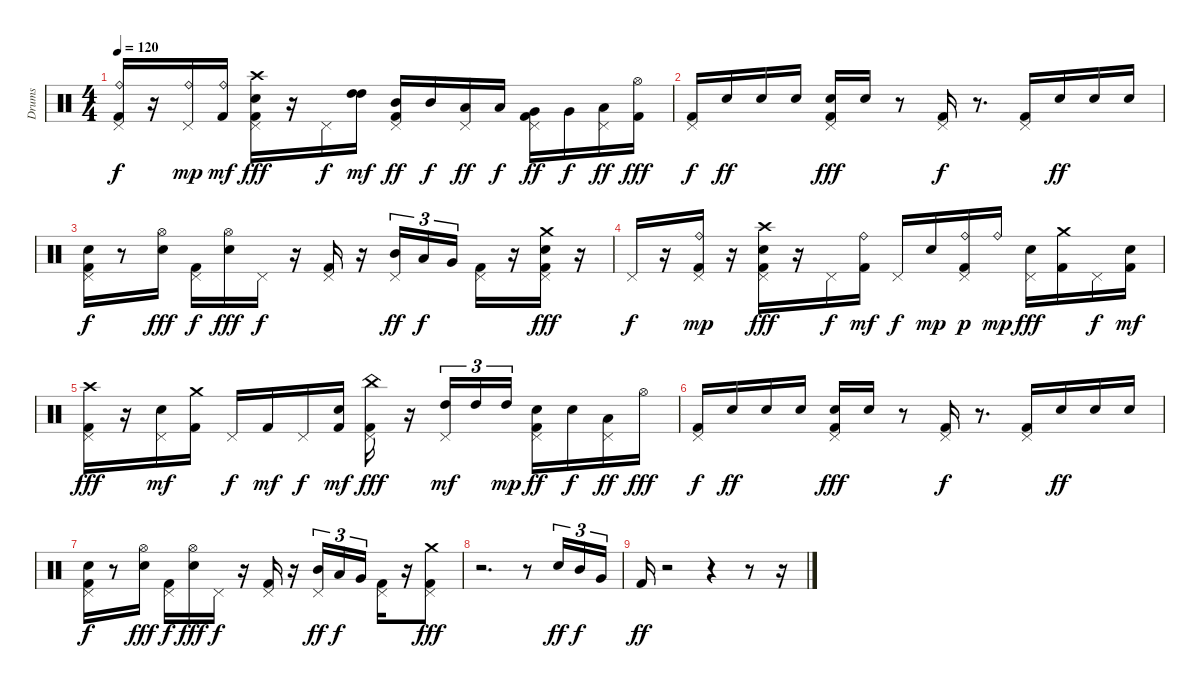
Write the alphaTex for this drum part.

\track ("Drums" "Drums") {instrument percussion}
\staff {score}
\articulation defaults
\ts (4 4)
\tempo 120
\clef neutral
\ks c
("Ride (bell)" "Kick (hit) 2" "Pedal Hi-Hat (hit)").16{dy f} r.16 ("Ride (bell)" "Pedal Hi-Hat (hit)").16{dy mp} ("Ride (bell)" "Kick (hit) 2").16{dy mf} ("Snare (hit) 2" "Crash high (hit)" "Kick (hit) 2" "Pedal Hi-Hat (hit)").16{dy fff} r.16 "Pedal Hi-Hat (hit)".16{dy f} ("High Tom (hit)" "High Tom (hit)").16{dy mf} ("Kick (hit) 2" "Mid Tom (hit)" "Pedal Hi-Hat (hit)").16{dy ff} "Mid Tom (hit)".16{dy f} ("Low Tom (hit)" "Pedal Hi-Hat (hit)").16{dy ff} "Low Tom (hit)".16{dy f} ("Kick (hit) 2" "Very Low Tom (hit)" "Pedal Hi-Hat (hit)").16{dy ff} "Very Low Tom (hit)".16{dy f} ("Low Floor Tom (hit)" "Pedal Hi-Hat (hit)").16{dy ff} ("Kick (hit) 2" "Hi-Hat (open)").16{dy fff} |
("Kick (hit) 2" "Pedal Hi-Hat (hit)").16{dy f} "Snare (hit) 2".16{dy ff} "Snare (hit) 2".16 "Snare (hit) 2".16 ("Snare (hit) 2" "Kick (hit) 2" "Pedal Hi-Hat (hit)").16{dy fff} "Snare (hit) 2".16 r.8 ("Kick (hit) 2" "Pedal Hi-Hat (hit)").16{dy f} r.8{d} ("Kick (hit) 2" "Pedal Hi-Hat (hit)").16 "Snare (hit) 2".16{dy ff} "Snare (hit) 2".16 "Snare (hit) 2".16 |
("Kick (hit) 2" "Snare (hit) 2" "Pedal Hi-Hat (hit)").16{dy f} r.8 ("Snare (hit) 2" "Hi-Hat (open)").16{dy fff} ("Kick (hit) 2" "Pedal Hi-Hat (hit)").16{dy f} ("Snare (hit) 2" "Hi-Hat (open)").16{dy fff} "Pedal Hi-Hat (hit)".16{dy f} r.16 ("Kick (hit) 2" "Pedal Hi-Hat (hit)").16 r.16 ("Mid Tom (hit)" "Pedal Hi-Hat (hit)").16{tu (3 2) dy ff} "Low Tom (hit)".16{tu (3 2) dy f} "Very Low Tom (hit)".16{tu (3 2)} ("Kick (hit) 2" "Pedal Hi-Hat (hit)").16 r.16 ("Kick (hit) 2" "Snare (hit) 2" "Crash medium (hit)" "Pedal Hi-Hat (hit)").16{dy fff} r.16 |
"Pedal Hi-Hat (hit)".16{dy f} r.16 ("Ride (bell)" "Kick (hit) 2" "Pedal Hi-Hat (hit)").16{dy mp} r.16 ("Crash high (hit)" "Snare (hit) 2" "Kick (hit) 2" "Pedal Hi-Hat (hit)").16{dy fff} r.16 "Pedal Hi-Hat (hit)".16{dy f} ("Ride (bell)" "Kick (hit) 2").16{dy mf} "Pedal Hi-Hat (hit)".16{dy f} "Snare (hit) 2".16{dy mp} ("Ride (bell)" "Kick (hit) 2" "Pedal Hi-Hat (hit)").16{dy p} "Ride (bell)".16{dy mp} ("Snare (hit) 2" "Pedal Hi-Hat (hit)").16{dy fff} ("Crash medium (hit)" "Kick (hit) 2").16 "Pedal Hi-Hat (hit)".16{dy f} ("Snare (hit) 2" "Kick (hit) 2").16{dy mf} |
("Crash high (hit)" "Kick (hit) 2" "Pedal Hi-Hat (hit)").16{dy fff} r.16 ("Snare (hit) 2" "Pedal Hi-Hat (hit)").16{dy mf} ("Crash medium (hit)" "Kick (hit) 2").16 "Pedal Hi-Hat (hit)".16{dy f} "Kick (hit) 2".16{dy mf} "Pedal Hi-Hat (hit)".16{dy f} ("Snare (hit) 2" "Kick (hit) 2").16{dy mf} ("China (hit)" "Kick (hit) 2" "Pedal Hi-Hat (hit)").16{dy fff} r.16 ("Pedal Hi-Hat (hit)" "High Tom (hit)").16{tu (3 2) dy mf} "High Tom (hit)".16{tu (3 2)} "High Tom (hit)".16{tu (3 2) dy mp} ("Snare (hit) 2" "Kick (hit) 2" "Pedal Hi-Hat (hit)").16{dy ff} "Snare (hit) 2".16{dy f} ("Low Tom (hit)" "Pedal Hi-Hat (hit)").16{dy ff} "Hi-Hat (open)".16{dy fff} |
("Kick (hit) 2" "Pedal Hi-Hat (hit)").16{dy f} "Snare (hit) 2".16{dy ff} "Snare (hit) 2".16 "Snare (hit) 2".16 ("Snare (hit) 2" "Kick (hit) 2" "Pedal Hi-Hat (hit)").16{dy fff} "Snare (hit) 2".16 r.8 ("Kick (hit) 2" "Pedal Hi-Hat (hit)").16{dy f} r.8{d} ("Kick (hit) 2" "Pedal Hi-Hat (hit)").16 "Snare (hit) 2".16{dy ff} "Snare (hit) 2".16 "Snare (hit) 2".16 |
("Kick (hit) 2" "Snare (hit) 2" "Pedal Hi-Hat (hit)").16{dy f} r.8 ("Snare (hit) 2" "Hi-Hat (open)").16{dy fff} ("Kick (hit) 2" "Pedal Hi-Hat (hit)").16{dy f} ("Snare (hit) 2" "Hi-Hat (open)").16{dy fff} "Pedal Hi-Hat (hit)".16{dy f} r.16 ("Kick (hit) 2" "Pedal Hi-Hat (hit)").16 r.16 ("Mid Tom (hit)" "Pedal Hi-Hat (hit)").16{tu (3 2) dy ff} "Low Tom (hit)".16{tu (3 2) dy f} "Very Low Tom (hit)".16{tu (3 2)} ("Kick (hit) 2" "Pedal Hi-Hat (hit)").16 r.16 ("Kick (hit) 2" "Crash medium (hit)" "Pedal Hi-Hat (hit)").8{dy fff} |
r.2{d} r.8 "Snare (hit) 2".16{tu (3 2) dy ff} "Mid Tom (hit)".16{tu (3 2) dy f} "Very Low Tom (hit)".16{tu (3 2)} |
"Kick (hit) 2".16{dy ff} r.2 r.4 r.8 r.16
